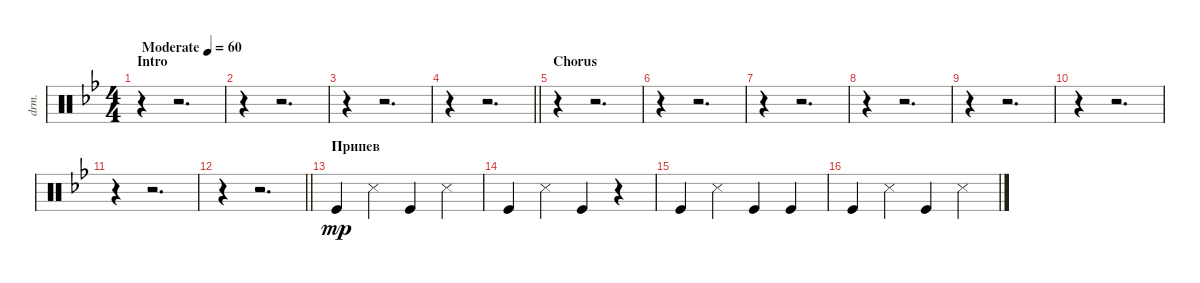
\defaultSystemsLayout 4
\bracketExtendMode groupsimilarinstruments
\otherSystemsTrackNameOrientation horizontal
\track ("Percussion" "drm.") {instrument percussion}
\staff {score}
\articulation defaults
\ts (4 4)
\beaming (8 2 2 2 2)
\section ("" "Intro")
\tempo (60 "Moderate")
\clef neutral
\ks bb
r.4{dy mp} r.2{d} |
r.4 r.2{d} |
r.4 r.2{d} |
\barLineRight lightlight
r.4 r.2{d} |
\section ("" "Chorus")
r.4 r.2{d} |
r.4 r.2{d} |
r.4 r.2{d} |
r.4 r.2{d} |
r.4 r.2{d} |
r.4 r.2{d} |
r.4 r.2{d} |
\barLineRight lightlight
r.4 r.2{d} |
\section ("" "Припев")
"Kick (hit)"{acc forcenatural}.4 "Snare (side stick) 3"{acc forcenatural}.4 "Kick (hit)"{acc forcenatural}.4 "Snare (side stick) 3"{acc forcenatural}.4 |
"Kick (hit)"{acc forcenatural}.4 "Snare (side stick) 3"{acc forcenatural}.4 "Kick (hit)"{acc forcenatural}.4 r.4 |
"Kick (hit)"{acc forcenatural}.4 "Snare (side stick) 3"{acc forcenatural}.4 "Kick (hit)"{acc forcenatural}.4 "Kick (hit)"{acc forcenatural}.4 |
"Kick (hit)"{acc forcenatural}.4 "Snare (side stick) 3"{acc forcenatural}.4 "Kick (hit)"{acc forcenatural}.4 "Snare (side stick) 3"{acc forcenatural}.4
